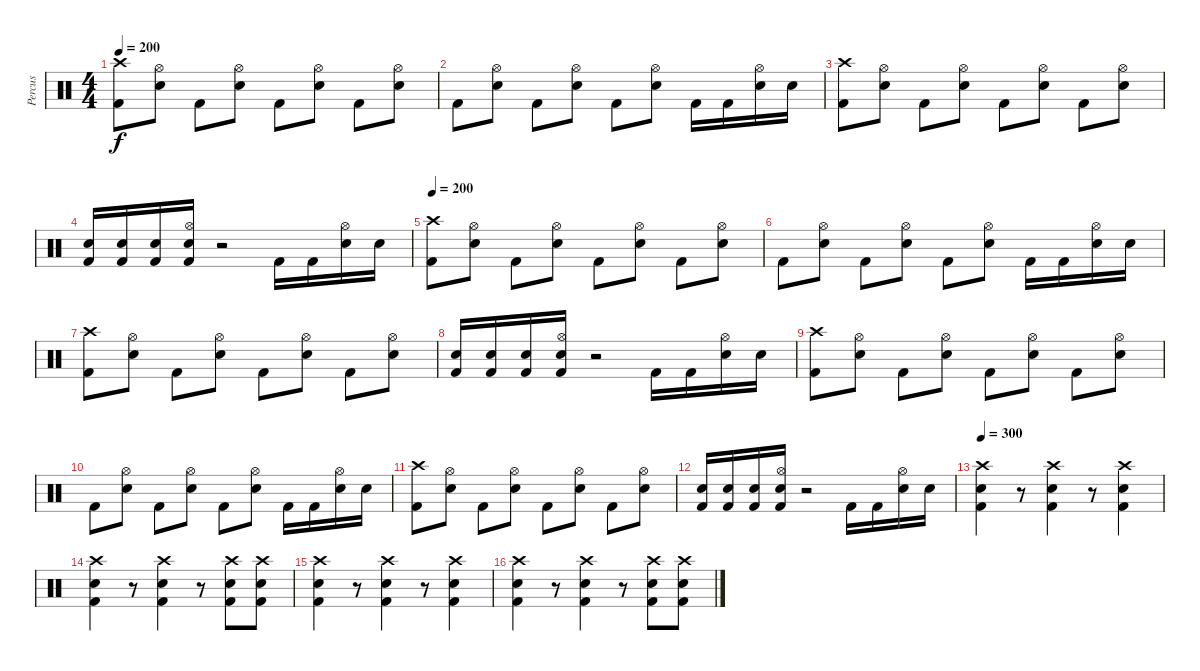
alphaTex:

\track ("Percus" "Percus") {instrument percussion}
\staff {score}
\articulation defaults
\ts (4 4)
\tempo 200
\clef neutral
\ks c
("Crash high (hit)" "Kick (hit) 2").8{dy f} ("Hi-Hat (open)" "Snare (hit) 2").8 "Kick (hit) 2".8 ("Hi-Hat (open)" "Snare (hit) 2").8 "Kick (hit) 2".8 ("Hi-Hat (open)" "Snare (hit) 2").8 "Kick (hit) 2".8 ("Hi-Hat (open)" "Snare (hit) 2").8 |
"Kick (hit) 2".8 ("Hi-Hat (open)" "Snare (hit) 2").8 "Kick (hit) 2".8 ("Hi-Hat (open)" "Snare (hit) 2").8 "Kick (hit) 2".8 ("Hi-Hat (open)" "Snare (hit) 2").8 "Kick (hit) 2".16 "Kick (hit) 2".16 ("Hi-Hat (open)" "Snare (hit) 2").16 "Snare (hit) 2".16 |
("Crash high (hit)" "Kick (hit) 2").8 ("Hi-Hat (open)" "Snare (hit) 2").8 "Kick (hit) 2".8 ("Hi-Hat (open)" "Snare (hit) 2").8 "Kick (hit) 2".8 ("Hi-Hat (open)" "Snare (hit) 2").8 "Kick (hit) 2".8 ("Hi-Hat (open)" "Snare (hit) 2").8 |
("Snare (hit) 2" "Kick (hit) 2").16 ("Snare (hit) 2" "Kick (hit) 2").16 ("Snare (hit) 2" "Kick (hit) 2").16 ("Hi-Hat (open)" "Snare (hit) 2" "Kick (hit) 2").16 r.2 "Kick (hit) 2".16 "Kick (hit) 2".16 ("Hi-Hat (open)" "Snare (hit) 2").16 "Snare (hit) 2".16 |
\tempo 200
("Crash high (hit)" "Kick (hit) 2").8 ("Hi-Hat (open)" "Snare (hit) 2").8 "Kick (hit) 2".8 ("Hi-Hat (open)" "Snare (hit) 2").8 "Kick (hit) 2".8 ("Hi-Hat (open)" "Snare (hit) 2").8 "Kick (hit) 2".8 ("Hi-Hat (open)" "Snare (hit) 2").8 |
"Kick (hit) 2".8 ("Hi-Hat (open)" "Snare (hit) 2").8 "Kick (hit) 2".8 ("Hi-Hat (open)" "Snare (hit) 2").8 "Kick (hit) 2".8 ("Hi-Hat (open)" "Snare (hit) 2").8 "Kick (hit) 2".16 "Kick (hit) 2".16 ("Hi-Hat (open)" "Snare (hit) 2").16 "Snare (hit) 2".16 |
("Crash high (hit)" "Kick (hit) 2").8 ("Hi-Hat (open)" "Snare (hit) 2").8 "Kick (hit) 2".8 ("Hi-Hat (open)" "Snare (hit) 2").8 "Kick (hit) 2".8 ("Hi-Hat (open)" "Snare (hit) 2").8 "Kick (hit) 2".8 ("Hi-Hat (open)" "Snare (hit) 2").8 |
("Snare (hit) 2" "Kick (hit) 2").16 ("Snare (hit) 2" "Kick (hit) 2").16 ("Snare (hit) 2" "Kick (hit) 2").16 ("Hi-Hat (open)" "Snare (hit) 2" "Kick (hit) 2").16 r.2 "Kick (hit) 2".16 "Kick (hit) 2".16 ("Hi-Hat (open)" "Snare (hit) 2").16 "Snare (hit) 2".16 |
("Crash high (hit)" "Kick (hit) 2").8 ("Hi-Hat (open)" "Snare (hit) 2").8 "Kick (hit) 2".8 ("Hi-Hat (open)" "Snare (hit) 2").8 "Kick (hit) 2".8 ("Hi-Hat (open)" "Snare (hit) 2").8 "Kick (hit) 2".8 ("Hi-Hat (open)" "Snare (hit) 2").8 |
"Kick (hit) 2".8 ("Hi-Hat (open)" "Snare (hit) 2").8 "Kick (hit) 2".8 ("Hi-Hat (open)" "Snare (hit) 2").8 "Kick (hit) 2".8 ("Hi-Hat (open)" "Snare (hit) 2").8 "Kick (hit) 2".16 "Kick (hit) 2".16 ("Hi-Hat (open)" "Snare (hit) 2").16 "Snare (hit) 2".16 |
("Crash high (hit)" "Kick (hit) 2").8 ("Hi-Hat (open)" "Snare (hit) 2").8 "Kick (hit) 2".8 ("Hi-Hat (open)" "Snare (hit) 2").8 "Kick (hit) 2".8 ("Hi-Hat (open)" "Snare (hit) 2").8 "Kick (hit) 2".8 ("Hi-Hat (open)" "Snare (hit) 2").8 |
("Snare (hit) 2" "Kick (hit) 2").16 ("Snare (hit) 2" "Kick (hit) 2").16 ("Snare (hit) 2" "Kick (hit) 2").16 ("Hi-Hat (open)" "Snare (hit) 2" "Kick (hit) 2").16 r.2 "Kick (hit) 2".16 "Kick (hit) 2".16 ("Hi-Hat (open)" "Snare (hit) 2").16 "Snare (hit) 2".16 |
\tempo 300
("Crash high (hit)" "Snare (hit) 2" "Kick (hit) 2").4 r.8 ("Crash high (hit)" "Snare (hit) 2" "Kick (hit) 2").4 r.8 ("Crash high (hit)" "Snare (hit) 2" "Kick (hit) 2").4 |
("Crash high (hit)" "Snare (hit) 2" "Kick (hit) 2").4 r.8 ("Crash high (hit)" "Snare (hit) 2" "Kick (hit) 2").4 r.8 ("Crash high (hit)" "Snare (hit) 2" "Kick (hit) 2").8 ("Crash high (hit)" "Snare (hit) 2" "Kick (hit) 2").8 |
("Crash high (hit)" "Snare (hit) 2" "Kick (hit) 2").4 r.8 ("Crash high (hit)" "Snare (hit) 2" "Kick (hit) 2").4 r.8 ("Crash high (hit)" "Snare (hit) 2" "Kick (hit) 2").4 |
("Crash high (hit)" "Snare (hit) 2" "Kick (hit) 2").4 r.8 ("Crash high (hit)" "Snare (hit) 2" "Kick (hit) 2").4 r.8 ("Crash high (hit)" "Snare (hit) 2" "Kick (hit) 2").8 ("Crash high (hit)" "Snare (hit) 2" "Kick (hit) 2").8
